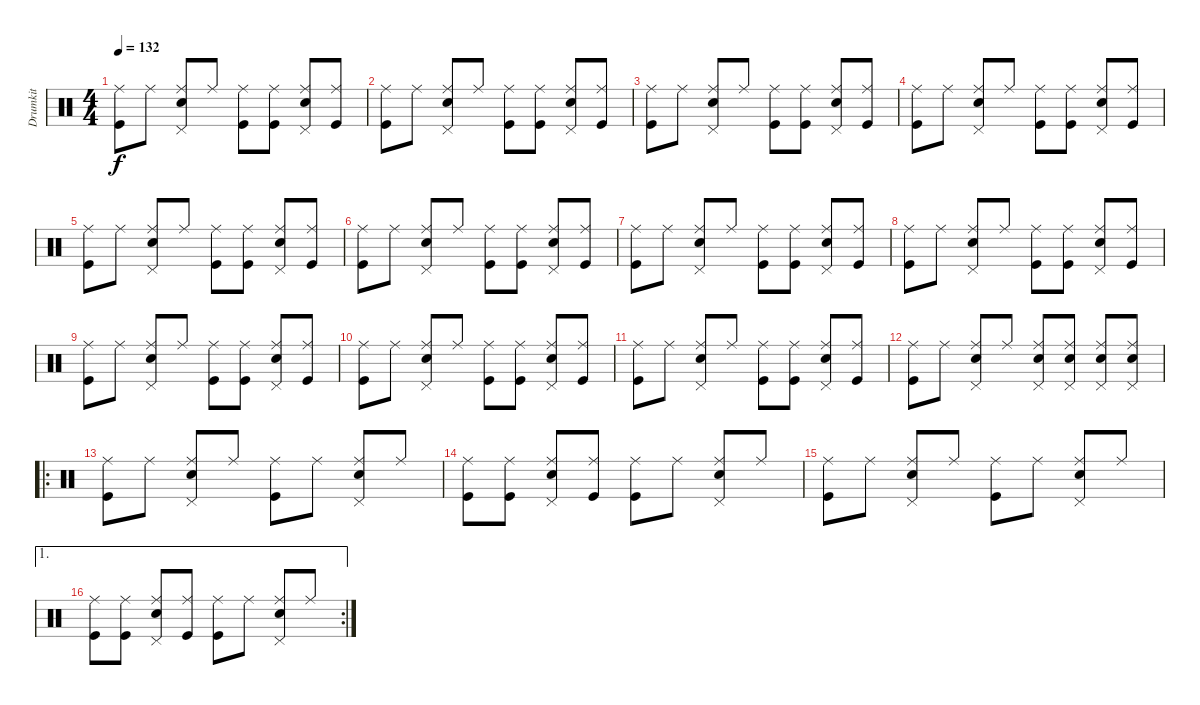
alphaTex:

\track ("Drumkit" "Drumkit") {instrument percussion}
\staff {score}
\articulation defaults
\ts (4 4)
\tempo 132
\clef neutral
\ks c
("Kick (hit)" "Ride (middle)").8{dy f} "Ride (middle)".8 ("Snare (hit) 2" "Pedal Hi-Hat (hit)" "Ride (middle)").8 "Ride (middle)".8 ("Kick (hit)" "Ride (middle)").8 ("Kick (hit)" "Ride (middle)").8 ("Snare (hit) 2" "Pedal Hi-Hat (hit)" "Ride (middle)").8 ("Kick (hit)" "Ride (middle)").8 |
("Kick (hit)" "Ride (middle)").8 "Ride (middle)".8 ("Snare (hit) 2" "Pedal Hi-Hat (hit)" "Ride (middle)").8 "Ride (middle)".8 ("Kick (hit)" "Ride (middle)").8 ("Kick (hit)" "Ride (middle)").8 ("Snare (hit) 2" "Pedal Hi-Hat (hit)" "Ride (middle)").8 ("Kick (hit)" "Ride (middle)").8 |
("Kick (hit)" "Ride (middle)").8 "Ride (middle)".8 ("Snare (hit) 2" "Pedal Hi-Hat (hit)" "Ride (middle)").8 "Ride (middle)".8 ("Kick (hit)" "Ride (middle)").8 ("Kick (hit)" "Ride (middle)").8 ("Snare (hit) 2" "Pedal Hi-Hat (hit)" "Ride (middle)").8 ("Kick (hit)" "Ride (middle)").8 |
("Kick (hit)" "Ride (middle)").8 "Ride (middle)".8 ("Snare (hit) 2" "Pedal Hi-Hat (hit)" "Ride (middle)").8 "Ride (middle)".8 ("Kick (hit)" "Ride (middle)").8 ("Kick (hit)" "Ride (middle)").8 ("Snare (hit) 2" "Pedal Hi-Hat (hit)" "Ride (middle)").8 ("Kick (hit)" "Ride (middle)").8 |
("Kick (hit)" "Ride (middle)").8 "Ride (middle)".8 ("Snare (hit) 2" "Pedal Hi-Hat (hit)" "Ride (middle)").8 "Ride (middle)".8 ("Kick (hit)" "Ride (middle)").8 ("Kick (hit)" "Ride (middle)").8 ("Snare (hit) 2" "Pedal Hi-Hat (hit)" "Ride (middle)").8 ("Kick (hit)" "Ride (middle)").8 |
("Kick (hit)" "Ride (middle)").8 "Ride (middle)".8 ("Snare (hit) 2" "Pedal Hi-Hat (hit)" "Ride (middle)").8 "Ride (middle)".8 ("Kick (hit)" "Ride (middle)").8 ("Kick (hit)" "Ride (middle)").8 ("Snare (hit) 2" "Pedal Hi-Hat (hit)" "Ride (middle)").8 ("Kick (hit)" "Ride (middle)").8 |
("Kick (hit)" "Ride (middle)").8 "Ride (middle)".8 ("Snare (hit) 2" "Pedal Hi-Hat (hit)" "Ride (middle)").8 "Ride (middle)".8 ("Kick (hit)" "Ride (middle)").8 ("Kick (hit)" "Ride (middle)").8 ("Snare (hit) 2" "Pedal Hi-Hat (hit)" "Ride (middle)").8 ("Kick (hit)" "Ride (middle)").8 |
("Kick (hit)" "Ride (middle)").8 "Ride (middle)".8 ("Snare (hit) 2" "Pedal Hi-Hat (hit)" "Ride (middle)").8 "Ride (middle)".8 ("Kick (hit)" "Ride (middle)").8 ("Kick (hit)" "Ride (middle)").8 ("Snare (hit) 2" "Pedal Hi-Hat (hit)" "Ride (middle)").8 ("Kick (hit)" "Ride (middle)").8 |
("Kick (hit)" "Ride (middle)").8 "Ride (middle)".8 ("Snare (hit) 2" "Pedal Hi-Hat (hit)" "Ride (middle)").8 "Ride (middle)".8 ("Kick (hit)" "Ride (middle)").8 ("Kick (hit)" "Ride (middle)").8 ("Snare (hit) 2" "Pedal Hi-Hat (hit)" "Ride (middle)").8 ("Kick (hit)" "Ride (middle)").8 |
("Kick (hit)" "Ride (middle)").8 "Ride (middle)".8 ("Snare (hit) 2" "Pedal Hi-Hat (hit)" "Ride (middle)").8 "Ride (middle)".8 ("Kick (hit)" "Ride (middle)").8 ("Kick (hit)" "Ride (middle)").8 ("Snare (hit) 2" "Pedal Hi-Hat (hit)" "Ride (middle)").8 ("Kick (hit)" "Ride (middle)").8 |
("Kick (hit)" "Ride (middle)").8 "Ride (middle)".8 ("Snare (hit) 2" "Pedal Hi-Hat (hit)" "Ride (middle)").8 "Ride (middle)".8 ("Kick (hit)" "Ride (middle)").8 ("Kick (hit)" "Ride (middle)").8 ("Snare (hit) 2" "Pedal Hi-Hat (hit)" "Ride (middle)").8 ("Kick (hit)" "Ride (middle)").8 |
("Kick (hit)" "Ride (middle)").8 "Ride (middle)".8 ("Snare (hit) 2" "Pedal Hi-Hat (hit)" "Ride (middle)").8 "Ride (middle)".8 ("Snare (hit) 2" "Pedal Hi-Hat (hit)" "Ride (middle)").8 ("Snare (hit) 2" "Pedal Hi-Hat (hit)" "Ride (middle)").8 ("Snare (hit) 2" "Pedal Hi-Hat (hit)" "Ride (middle)").8 ("Snare (hit) 2" "Pedal Hi-Hat (hit)" "Ride (middle)").8 |
\ro
("Kick (hit)" "Ride (middle)").8 "Ride (middle)".8 ("Snare (hit) 2" "Pedal Hi-Hat (hit)" "Ride (middle)").8 "Ride (middle)".8 ("Kick (hit)" "Ride (middle)").8 "Ride (middle)".8 ("Snare (hit) 2" "Pedal Hi-Hat (hit)" "Ride (middle)").8 "Ride (middle)".8 |
("Kick (hit)" "Ride (middle)").8 ("Kick (hit)" "Ride (middle)").8 ("Snare (hit) 2" "Pedal Hi-Hat (hit)" "Ride (middle)").8 ("Kick (hit)" "Ride (middle)").8 ("Kick (hit)" "Ride (middle)").8 "Ride (middle)".8 ("Snare (hit) 2" "Pedal Hi-Hat (hit)" "Ride (middle)").8 "Ride (middle)".8 |
("Kick (hit)" "Ride (middle)").8 "Ride (middle)".8 ("Snare (hit) 2" "Pedal Hi-Hat (hit)" "Ride (middle)").8 "Ride (middle)".8 ("Kick (hit)" "Ride (middle)").8 "Ride (middle)".8 ("Snare (hit) 2" "Pedal Hi-Hat (hit)" "Ride (middle)").8 "Ride (middle)".8 |
\ae 1
\rc 2
("Kick (hit)" "Ride (middle)").8 ("Kick (hit)" "Ride (middle)").8 ("Snare (hit) 2" "Pedal Hi-Hat (hit)" "Ride (middle)").8 ("Kick (hit)" "Ride (middle)").8 ("Kick (hit)" "Ride (middle)").8 "Ride (middle)".8 ("Snare (hit) 2" "Pedal Hi-Hat (hit)" "Ride (middle)").8 "Ride (middle)".8
